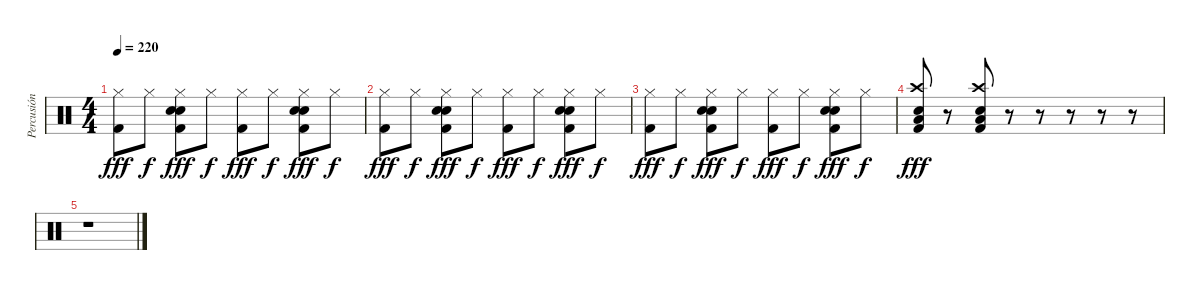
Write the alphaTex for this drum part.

\track ("Percusión" "Percusión") {instrument percussion}
\staff {score}
\articulation defaults
\ts (4 4)
\tempo 220
\clef neutral
\ks c
("Hi-Hat (closed)" "Kick (hit) 2").8{dy fff} "Hi-Hat (closed)".8{dy f} ("Hi-Hat (closed)" "Electric Snare (hit)" "Snare (hit) 2" "Kick (hit) 2").8{dy fff} "Hi-Hat (closed)".8{dy f} ("Hi-Hat (closed)" "Kick (hit) 2").8{dy fff} "Hi-Hat (closed)".8{dy f} ("Hi-Hat (closed)" "Electric Snare (hit)" "Snare (hit) 2" "Kick (hit) 2").8{dy fff} "Hi-Hat (closed)".8{dy f} |
("Hi-Hat (closed)" "Kick (hit) 2").8{dy fff} "Hi-Hat (closed)".8{dy f} ("Hi-Hat (closed)" "Electric Snare (hit)" "Snare (hit) 2" "Kick (hit) 2").8{dy fff} "Hi-Hat (closed)".8{dy f} ("Hi-Hat (closed)" "Kick (hit) 2").8{dy fff} "Hi-Hat (closed)".8{dy f} ("Hi-Hat (closed)" "Electric Snare (hit)" "Snare (hit) 2" "Kick (hit) 2").8{dy fff} "Hi-Hat (closed)".8{dy f} |
("Hi-Hat (closed)" "Kick (hit) 2").8{dy fff} "Hi-Hat (closed)".8{dy f} ("Hi-Hat (closed)" "Electric Snare (hit)" "Snare (hit) 2" "Kick (hit) 2").8{dy fff} "Hi-Hat (closed)".8{dy f} ("Hi-Hat (closed)" "Kick (hit) 2").8{dy fff} "Hi-Hat (closed)".8{dy f} ("Hi-Hat (closed)" "Electric Snare (hit)" "Snare (hit) 2" "Kick (hit) 2").8{dy fff} "Hi-Hat (closed)".8{dy f} |
("Crash high (hit)" "Low Tom (hit)" "Kick (hit) 2" "Electric Snare (hit)").8{dy fff} r.8 ("Crash high (hit)" "Low Tom (hit)" "Kick (hit) 2" "Electric Snare (hit)").8 r.8 r.8 r.8 r.8 r.8 |
r.1
